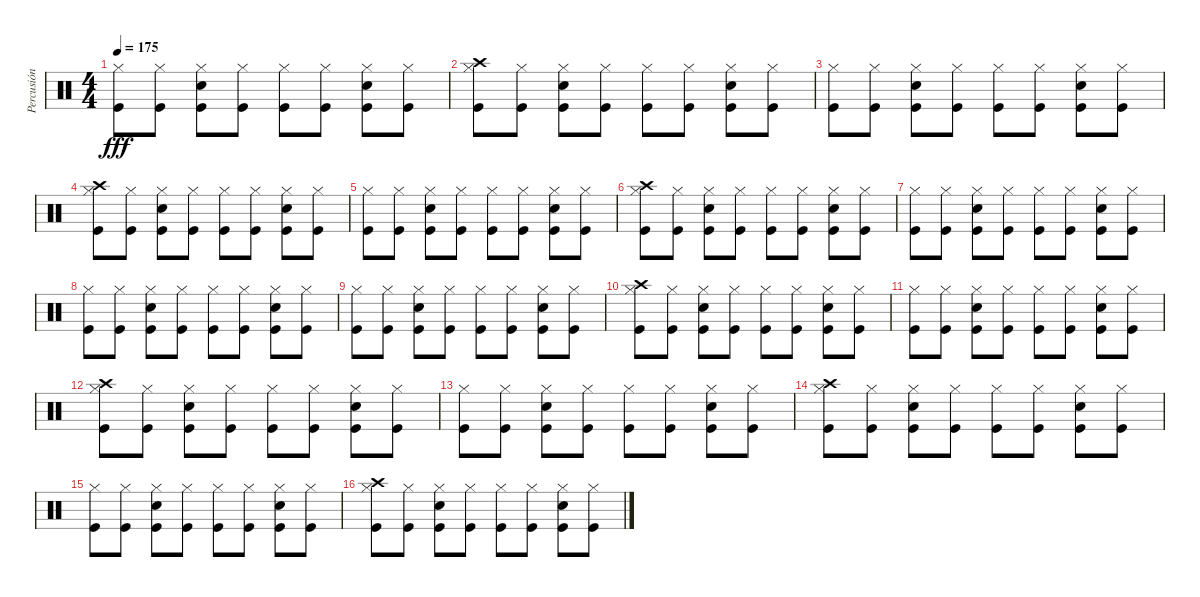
\track ("Percusión" "Percusión") {instrument percussion}
\staff {score}
\articulation defaults
\ts (4 4)
\tempo 175
\clef neutral
\ks c
("Kick (hit)" "Hi-Hat (closed)").8{dy fff} ("Kick (hit)" "Hi-Hat (closed)").8 ("Snare (hit) 2" "Kick (hit)" "Hi-Hat (closed)").8 ("Kick (hit)" "Hi-Hat (closed)").8 ("Kick (hit)" "Hi-Hat (closed)").8 ("Kick (hit)" "Hi-Hat (closed)").8 ("Snare (hit) 2" "Kick (hit)" "Hi-Hat (closed)").8 ("Kick (hit)" "Hi-Hat (closed)").8 |
("Kick (hit)" "Crash high (hit)" "Hi-Hat (closed)").8 ("Kick (hit)" "Hi-Hat (closed)").8 ("Kick (hit)" "Snare (hit) 2" "Hi-Hat (closed)").8 ("Hi-Hat (closed)" "Kick (hit)").8 ("Kick (hit)" "Hi-Hat (closed)").8 ("Kick (hit)" "Hi-Hat (closed)").8 ("Snare (hit) 2" "Kick (hit)" "Hi-Hat (closed)").8 ("Kick (hit)" "Hi-Hat (closed)").8 |
("Kick (hit)" "Hi-Hat (closed)").8 ("Kick (hit)" "Hi-Hat (closed)").8 ("Snare (hit) 2" "Kick (hit)" "Hi-Hat (closed)").8 ("Kick (hit)" "Hi-Hat (closed)").8 ("Kick (hit)" "Hi-Hat (closed)").8 ("Kick (hit)" "Hi-Hat (closed)").8 ("Snare (hit) 2" "Kick (hit)" "Hi-Hat (closed)").8 ("Kick (hit)" "Hi-Hat (closed)").8 |
("Kick (hit)" "Crash high (hit)" "Hi-Hat (closed)").8 ("Kick (hit)" "Hi-Hat (closed)").8 ("Kick (hit)" "Snare (hit) 2" "Hi-Hat (closed)").8 ("Hi-Hat (closed)" "Kick (hit)").8 ("Kick (hit)" "Hi-Hat (closed)").8 ("Kick (hit)" "Hi-Hat (closed)").8 ("Snare (hit) 2" "Kick (hit)" "Hi-Hat (closed)").8 ("Kick (hit)" "Hi-Hat (closed)").8 |
("Kick (hit)" "Hi-Hat (closed)").8 ("Kick (hit)" "Hi-Hat (closed)").8 ("Snare (hit) 2" "Kick (hit)" "Hi-Hat (closed)").8 ("Kick (hit)" "Hi-Hat (closed)").8 ("Kick (hit)" "Hi-Hat (closed)").8 ("Kick (hit)" "Hi-Hat (closed)").8 ("Snare (hit) 2" "Kick (hit)" "Hi-Hat (closed)").8 ("Kick (hit)" "Hi-Hat (closed)").8 |
("Kick (hit)" "Crash high (hit)" "Hi-Hat (closed)").8 ("Kick (hit)" "Hi-Hat (closed)").8 ("Kick (hit)" "Snare (hit) 2" "Hi-Hat (closed)").8 ("Hi-Hat (closed)" "Kick (hit)").8 ("Kick (hit)" "Hi-Hat (closed)").8 ("Kick (hit)" "Hi-Hat (closed)").8 ("Snare (hit) 2" "Kick (hit)" "Hi-Hat (closed)").8 ("Kick (hit)" "Hi-Hat (closed)").8 |
("Kick (hit)" "Hi-Hat (closed)").8 ("Kick (hit)" "Hi-Hat (closed)").8 ("Snare (hit) 2" "Kick (hit)" "Hi-Hat (closed)").8 ("Kick (hit)" "Hi-Hat (closed)").8 ("Kick (hit)" "Hi-Hat (closed)").8 ("Kick (hit)" "Hi-Hat (closed)").8 ("Snare (hit) 2" "Kick (hit)" "Hi-Hat (closed)").8 ("Kick (hit)" "Hi-Hat (closed)").8 |
("Kick (hit)" "Hi-Hat (closed)").8 ("Kick (hit)" "Hi-Hat (closed)").8 ("Snare (hit) 2" "Kick (hit)" "Hi-Hat (closed)").8 ("Kick (hit)" "Hi-Hat (closed)").8 ("Kick (hit)" "Hi-Hat (closed)").8 ("Kick (hit)" "Hi-Hat (closed)").8 ("Snare (hit) 2" "Kick (hit)" "Hi-Hat (closed)").8 ("Kick (hit)" "Hi-Hat (closed)").8 |
("Kick (hit)" "Hi-Hat (closed)").8 ("Kick (hit)" "Hi-Hat (closed)").8 ("Snare (hit) 2" "Kick (hit)" "Hi-Hat (closed)").8 ("Kick (hit)" "Hi-Hat (closed)").8 ("Kick (hit)" "Hi-Hat (closed)").8 ("Kick (hit)" "Hi-Hat (closed)").8 ("Snare (hit) 2" "Kick (hit)" "Hi-Hat (closed)").8 ("Kick (hit)" "Hi-Hat (closed)").8 |
("Kick (hit)" "Crash high (hit)" "Hi-Hat (closed)").8 ("Kick (hit)" "Hi-Hat (closed)").8 ("Kick (hit)" "Snare (hit) 2" "Hi-Hat (closed)").8 ("Hi-Hat (closed)" "Kick (hit)").8 ("Kick (hit)" "Hi-Hat (closed)").8 ("Kick (hit)" "Hi-Hat (closed)").8 ("Snare (hit) 2" "Kick (hit)" "Hi-Hat (closed)").8 ("Kick (hit)" "Hi-Hat (closed)").8 |
("Kick (hit)" "Hi-Hat (closed)").8 ("Kick (hit)" "Hi-Hat (closed)").8 ("Snare (hit) 2" "Kick (hit)" "Hi-Hat (closed)").8 ("Kick (hit)" "Hi-Hat (closed)").8 ("Kick (hit)" "Hi-Hat (closed)").8 ("Kick (hit)" "Hi-Hat (closed)").8 ("Snare (hit) 2" "Kick (hit)" "Hi-Hat (closed)").8 ("Kick (hit)" "Hi-Hat (closed)").8 |
("Kick (hit)" "Crash high (hit)" "Hi-Hat (closed)").8 ("Kick (hit)" "Hi-Hat (closed)").8 ("Kick (hit)" "Snare (hit) 2" "Hi-Hat (closed)").8 ("Hi-Hat (closed)" "Kick (hit)").8 ("Kick (hit)" "Hi-Hat (closed)").8 ("Kick (hit)" "Hi-Hat (closed)").8 ("Snare (hit) 2" "Kick (hit)" "Hi-Hat (closed)").8 ("Kick (hit)" "Hi-Hat (closed)").8 |
("Kick (hit)" "Hi-Hat (closed)").8 ("Kick (hit)" "Hi-Hat (closed)").8 ("Snare (hit) 2" "Kick (hit)" "Hi-Hat (closed)").8 ("Kick (hit)" "Hi-Hat (closed)").8 ("Kick (hit)" "Hi-Hat (closed)").8 ("Kick (hit)" "Hi-Hat (closed)").8 ("Snare (hit) 2" "Kick (hit)" "Hi-Hat (closed)").8 ("Kick (hit)" "Hi-Hat (closed)").8 |
("Kick (hit)" "Crash high (hit)" "Hi-Hat (closed)").8 ("Kick (hit)" "Hi-Hat (closed)").8 ("Kick (hit)" "Snare (hit) 2" "Hi-Hat (closed)").8 ("Hi-Hat (closed)" "Kick (hit)").8 ("Kick (hit)" "Hi-Hat (closed)").8 ("Kick (hit)" "Hi-Hat (closed)").8 ("Snare (hit) 2" "Kick (hit)" "Hi-Hat (closed)").8 ("Kick (hit)" "Hi-Hat (closed)").8 |
("Kick (hit)" "Hi-Hat (closed)").8 ("Kick (hit)" "Hi-Hat (closed)").8 ("Snare (hit) 2" "Kick (hit)" "Hi-Hat (closed)").8 ("Kick (hit)" "Hi-Hat (closed)").8 ("Kick (hit)" "Hi-Hat (closed)").8 ("Kick (hit)" "Hi-Hat (closed)").8 ("Snare (hit) 2" "Kick (hit)" "Hi-Hat (closed)").8 ("Kick (hit)" "Hi-Hat (closed)").8 |
("Kick (hit)" "Crash high (hit)" "Hi-Hat (closed)").8 ("Kick (hit)" "Hi-Hat (closed)").8 ("Kick (hit)" "Snare (hit) 2" "Hi-Hat (closed)").8 ("Hi-Hat (closed)" "Kick (hit)").8 ("Kick (hit)" "Hi-Hat (closed)").8 ("Kick (hit)" "Hi-Hat (closed)").8 ("Snare (hit) 2" "Kick (hit)" "Hi-Hat (closed)").8 ("Kick (hit)" "Hi-Hat (closed)").8
